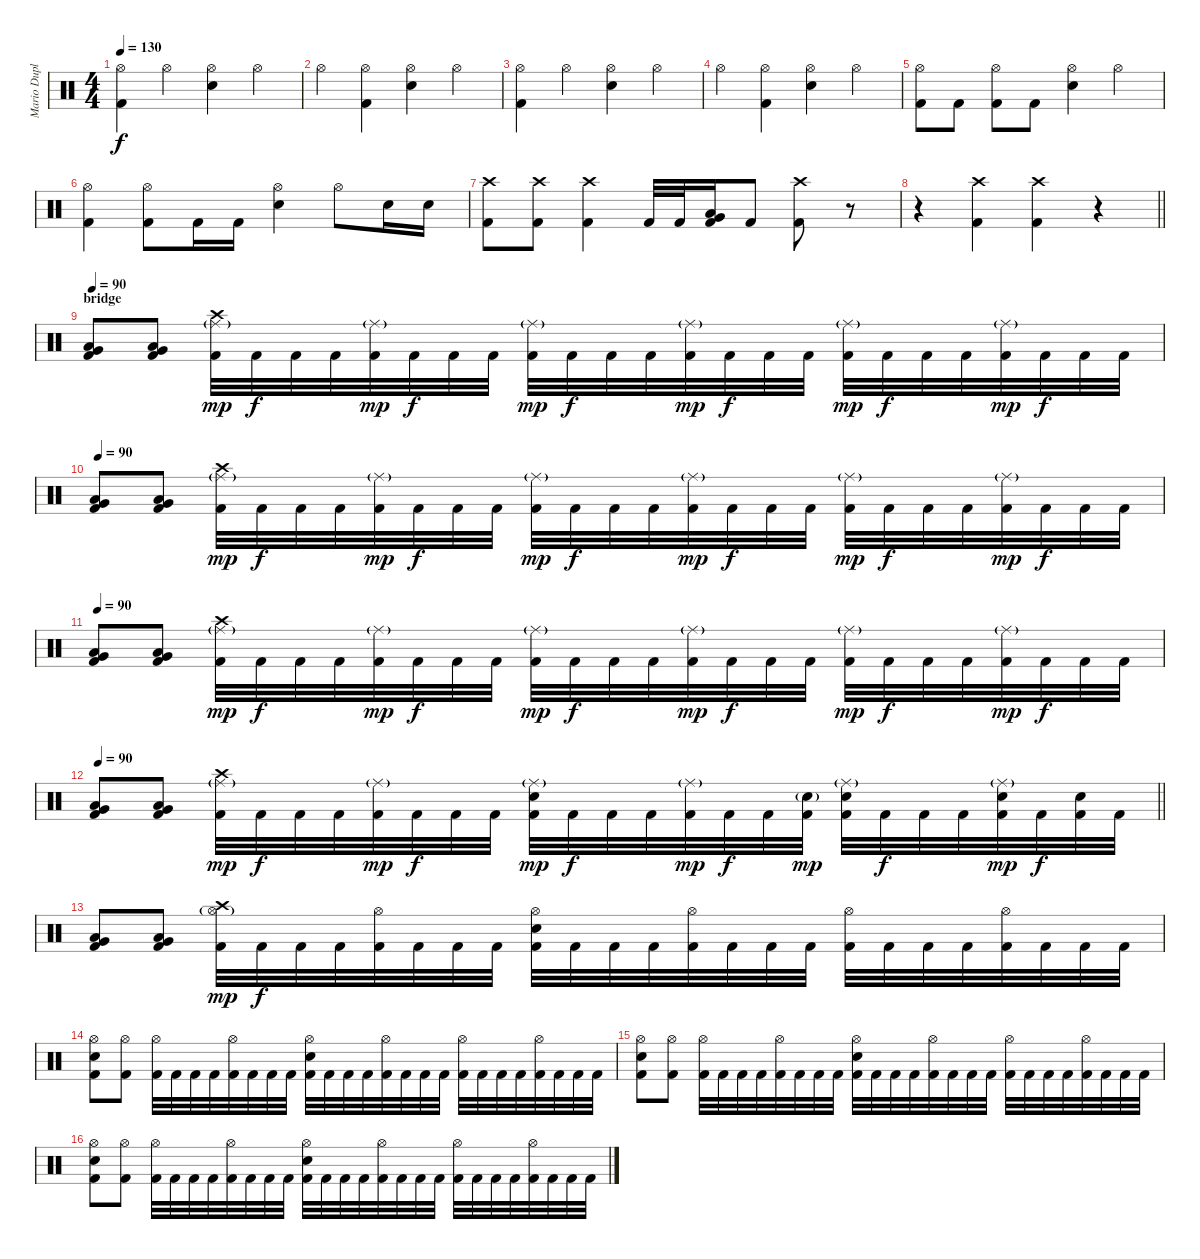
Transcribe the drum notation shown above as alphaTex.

\track ("Mario Duplantier" "Mario Dupl") {instrument percussion}
\staff {score}
\articulation defaults
\ts (4 4)
\section ("" "")
\tempo 130
\clef neutral
\ks c
("Hi-Hat (open)" "Kick (hit) 2").4{dy f} "Hi-Hat (open)".4 ("Hi-Hat (open)" "Electric Snare (hit)").4 "Hi-Hat (open)".4 |
"Hi-Hat (open)".4 ("Hi-Hat (open)" "Kick (hit) 2").4 ("Hi-Hat (open)" "Electric Snare (hit)").4 "Hi-Hat (open)".4 |
("Hi-Hat (open)" "Kick (hit) 2").4 "Hi-Hat (open)".4 ("Hi-Hat (open)" "Electric Snare (hit)").4 "Hi-Hat (open)".4 |
"Hi-Hat (open)".4 ("Hi-Hat (open)" "Kick (hit) 2").4 ("Hi-Hat (open)" "Electric Snare (hit)").4 "Hi-Hat (open)".4 |
("Hi-Hat (open)" "Kick (hit) 2").8 "Kick (hit) 2".8 ("Hi-Hat (open)" "Kick (hit) 2").8 "Kick (hit) 2".8 ("Hi-Hat (open)" "Electric Snare (hit)").4 "Hi-Hat (open)".4 |
("Hi-Hat (open)" "Kick (hit) 2").4 ("Hi-Hat (open)" "Kick (hit) 2").8 "Kick (hit) 2".16 "Kick (hit) 2".16 ("Hi-Hat (open)" "Electric Snare (hit)").4 "Hi-Hat (open)".8 "Electric Snare (hit)".16 "Electric Snare (hit)".16 |
("Crash high (hit)" "Kick (hit) 2").8 ("Crash high (hit)" "Kick (hit) 2").8 ("Crash high (hit)" "Kick (hit) 2").4 "Kick (hit) 2".32 "Kick (hit) 2".32 ("Low Floor Tom (hit)" "Very Low Tom (hit)" "Kick (hit) 2").16 "Kick (hit) 2".8 ("Crash high (hit)" "Kick (hit) 2").8 r.8 |
\barLineRight lightlight
r.4 ("Kick (hit) 2" "Crash high (hit)").4 ("Kick (hit) 2" "Crash high (hit)").4 r.4 |
\section ("" "bridge")
\tempo 90
("Low Floor Tom (hit)" "Very Low Tom (hit)" "Kick (hit) 2").8 ("Low Floor Tom (hit)" "Very Low Tom (hit)" "Kick (hit) 2").8 ("Crash high (hit)" "Ride (middle)"{g} "Kick (hit) 2").32{dy mp} "Kick (hit) 2".32{dy f} "Kick (hit) 2".32 "Kick (hit) 2".32 ("Ride (middle)"{g} "Kick (hit) 2").32{dy mp} "Kick (hit) 2".32{dy f} "Kick (hit) 2".32 "Kick (hit) 2".32 ("Ride (middle)"{g} "Kick (hit) 2").32{dy mp} "Kick (hit) 2".32{dy f} "Kick (hit) 2".32 "Kick (hit) 2".32 ("Ride (middle)"{g} "Kick (hit) 2").32{dy mp} "Kick (hit) 2".32{dy f} "Kick (hit) 2".32 "Kick (hit) 2".32 ("Ride (middle)"{g} "Kick (hit) 2").32{dy mp} "Kick (hit) 2".32{dy f} "Kick (hit) 2".32 "Kick (hit) 2".32 ("Ride (middle)"{g} "Kick (hit) 2").32{dy mp} "Kick (hit) 2".32{dy f} "Kick (hit) 2".32 "Kick (hit) 2".32 |
\tempo 90
("Low Floor Tom (hit)" "Very Low Tom (hit)" "Kick (hit) 2").8 ("Low Floor Tom (hit)" "Very Low Tom (hit)" "Kick (hit) 2").8 ("Crash high (hit)" "Ride (middle)"{g} "Kick (hit) 2").32{dy mp} "Kick (hit) 2".32{dy f} "Kick (hit) 2".32 "Kick (hit) 2".32 ("Ride (middle)"{g} "Kick (hit) 2").32{dy mp} "Kick (hit) 2".32{dy f} "Kick (hit) 2".32 "Kick (hit) 2".32 ("Ride (middle)"{g} "Kick (hit) 2").32{dy mp} "Kick (hit) 2".32{dy f} "Kick (hit) 2".32 "Kick (hit) 2".32 ("Ride (middle)"{g} "Kick (hit) 2").32{dy mp} "Kick (hit) 2".32{dy f} "Kick (hit) 2".32 "Kick (hit) 2".32 ("Ride (middle)"{g} "Kick (hit) 2").32{dy mp} "Kick (hit) 2".32{dy f} "Kick (hit) 2".32 "Kick (hit) 2".32 ("Ride (middle)"{g} "Kick (hit) 2").32{dy mp} "Kick (hit) 2".32{dy f} "Kick (hit) 2".32 "Kick (hit) 2".32 |
\tempo 90
("Low Floor Tom (hit)" "Very Low Tom (hit)" "Kick (hit) 2").8 ("Low Floor Tom (hit)" "Very Low Tom (hit)" "Kick (hit) 2").8 ("Crash high (hit)" "Ride (middle)"{g} "Kick (hit) 2").32{dy mp} "Kick (hit) 2".32{dy f} "Kick (hit) 2".32 "Kick (hit) 2".32 ("Ride (middle)"{g} "Kick (hit) 2").32{dy mp} "Kick (hit) 2".32{dy f} "Kick (hit) 2".32 "Kick (hit) 2".32 ("Ride (middle)"{g} "Kick (hit) 2").32{dy mp} "Kick (hit) 2".32{dy f} "Kick (hit) 2".32 "Kick (hit) 2".32 ("Ride (middle)"{g} "Kick (hit) 2").32{dy mp} "Kick (hit) 2".32{dy f} "Kick (hit) 2".32 "Kick (hit) 2".32 ("Ride (middle)"{g} "Kick (hit) 2").32{dy mp} "Kick (hit) 2".32{dy f} "Kick (hit) 2".32 "Kick (hit) 2".32 ("Ride (middle)"{g} "Kick (hit) 2").32{dy mp} "Kick (hit) 2".32{dy f} "Kick (hit) 2".32 "Kick (hit) 2".32 |
\tempo 90
\barLineRight lightlight
("Low Floor Tom (hit)" "Very Low Tom (hit)" "Kick (hit) 2").8 ("Low Floor Tom (hit)" "Very Low Tom (hit)" "Kick (hit) 2").8 ("Crash high (hit)" "Ride (middle)"{g} "Kick (hit) 2").32{dy mp} "Kick (hit) 2".32{dy f} "Kick (hit) 2".32 "Kick (hit) 2".32 ("Ride (middle)"{g} "Kick (hit) 2").32{dy mp} "Kick (hit) 2".32{dy f} "Kick (hit) 2".32 "Kick (hit) 2".32 ("Ride (middle)"{g} "Electric Snare (hit)" "Kick (hit) 2").32{dy mp} "Kick (hit) 2".32{dy f} "Kick (hit) 2".32 "Kick (hit) 2".32 ("Ride (middle)"{g} "Kick (hit) 2").32{dy mp} "Kick (hit) 2".32{dy f} "Kick (hit) 2".32 ("Electric Snare (hit)"{g} "Kick (hit) 2").32{dy mp} ("Ride (middle)"{g} "Electric Snare (hit)" "Kick (hit) 2").32 "Kick (hit) 2".32{dy f} "Kick (hit) 2".32 "Kick (hit) 2".32 ("Ride (middle)"{g} "Electric Snare (hit)" "Kick (hit) 2").32{dy mp} "Kick (hit) 2".32{dy f} ("Electric Snare (hit)" "Kick (hit) 2").32 "Kick (hit) 2".32 |
\section ("" "")
("Low Floor Tom (hit)" "Very Low Tom (hit)" "Kick (hit) 2").8 ("Low Floor Tom (hit)" "Very Low Tom (hit)" "Kick (hit) 2").8 ("Crash high (hit)" "Hi-Hat (open)"{g} "Kick (hit) 2").32{dy mp} "Kick (hit) 2".32{dy f} "Kick (hit) 2".32 "Kick (hit) 2".32 ("Hi-Hat (open)" "Kick (hit) 2").32 "Kick (hit) 2".32 "Kick (hit) 2".32 "Kick (hit) 2".32 ("Hi-Hat (open)" "Electric Snare (hit)" "Kick (hit) 2").32 "Kick (hit) 2".32 "Kick (hit) 2".32 "Kick (hit) 2".32 ("Hi-Hat (open)" "Kick (hit) 2").32 "Kick (hit) 2".32 "Kick (hit) 2".32 "Kick (hit) 2".32 ("Hi-Hat (open)" "Kick (hit) 2").32 "Kick (hit) 2".32 "Kick (hit) 2".32 "Kick (hit) 2".32 ("Hi-Hat (open)" "Kick (hit) 2").32 "Kick (hit) 2".32 "Kick (hit) 2".32 "Kick (hit) 2".32 |
("Hi-Hat (open)" "Electric Snare (hit)" "Kick (hit) 2").8 ("Hi-Hat (open)" "Kick (hit) 2").8 ("Hi-Hat (open)" "Kick (hit) 2").32 "Kick (hit) 2".32 "Kick (hit) 2".32 "Kick (hit) 2".32 ("Hi-Hat (open)" "Kick (hit) 2").32 "Kick (hit) 2".32 "Kick (hit) 2".32 "Kick (hit) 2".32 ("Hi-Hat (open)" "Electric Snare (hit)" "Kick (hit) 2").32 "Kick (hit) 2".32 "Kick (hit) 2".32 "Kick (hit) 2".32 ("Hi-Hat (open)" "Kick (hit) 2").32 "Kick (hit) 2".32 "Kick (hit) 2".32 "Kick (hit) 2".32 ("Hi-Hat (open)" "Kick (hit) 2").32 "Kick (hit) 2".32 "Kick (hit) 2".32 "Kick (hit) 2".32 ("Hi-Hat (open)" "Kick (hit) 2").32 "Kick (hit) 2".32 "Kick (hit) 2".32 "Kick (hit) 2".32 |
("Hi-Hat (open)" "Electric Snare (hit)" "Kick (hit) 2").8 ("Hi-Hat (open)" "Kick (hit) 2").8 ("Hi-Hat (open)" "Kick (hit) 2").32 "Kick (hit) 2".32 "Kick (hit) 2".32 "Kick (hit) 2".32 ("Hi-Hat (open)" "Kick (hit) 2").32 "Kick (hit) 2".32 "Kick (hit) 2".32 "Kick (hit) 2".32 ("Hi-Hat (open)" "Electric Snare (hit)" "Kick (hit) 2").32 "Kick (hit) 2".32 "Kick (hit) 2".32 "Kick (hit) 2".32 ("Hi-Hat (open)" "Kick (hit) 2").32 "Kick (hit) 2".32 "Kick (hit) 2".32 "Kick (hit) 2".32 ("Hi-Hat (open)" "Kick (hit) 2").32 "Kick (hit) 2".32 "Kick (hit) 2".32 "Kick (hit) 2".32 ("Hi-Hat (open)" "Kick (hit) 2").32 "Kick (hit) 2".32 "Kick (hit) 2".32 "Kick (hit) 2".32 |
("Hi-Hat (open)" "Electric Snare (hit)" "Kick (hit) 2").8 ("Hi-Hat (open)" "Kick (hit) 2").8 ("Hi-Hat (open)" "Kick (hit) 2").32 "Kick (hit) 2".32 "Kick (hit) 2".32 "Kick (hit) 2".32 ("Hi-Hat (open)" "Kick (hit) 2").32 "Kick (hit) 2".32 "Kick (hit) 2".32 "Kick (hit) 2".32 ("Hi-Hat (open)" "Electric Snare (hit)" "Kick (hit) 2").32 "Kick (hit) 2".32 "Kick (hit) 2".32 "Kick (hit) 2".32 ("Hi-Hat (open)" "Kick (hit) 2").32 "Kick (hit) 2".32 "Kick (hit) 2".32 "Kick (hit) 2".32 ("Hi-Hat (open)" "Kick (hit) 2").32 "Kick (hit) 2".32 "Kick (hit) 2".32 "Kick (hit) 2".32 ("Hi-Hat (open)" "Kick (hit) 2").32 "Kick (hit) 2".32 "Kick (hit) 2".32 "Kick (hit) 2".32
